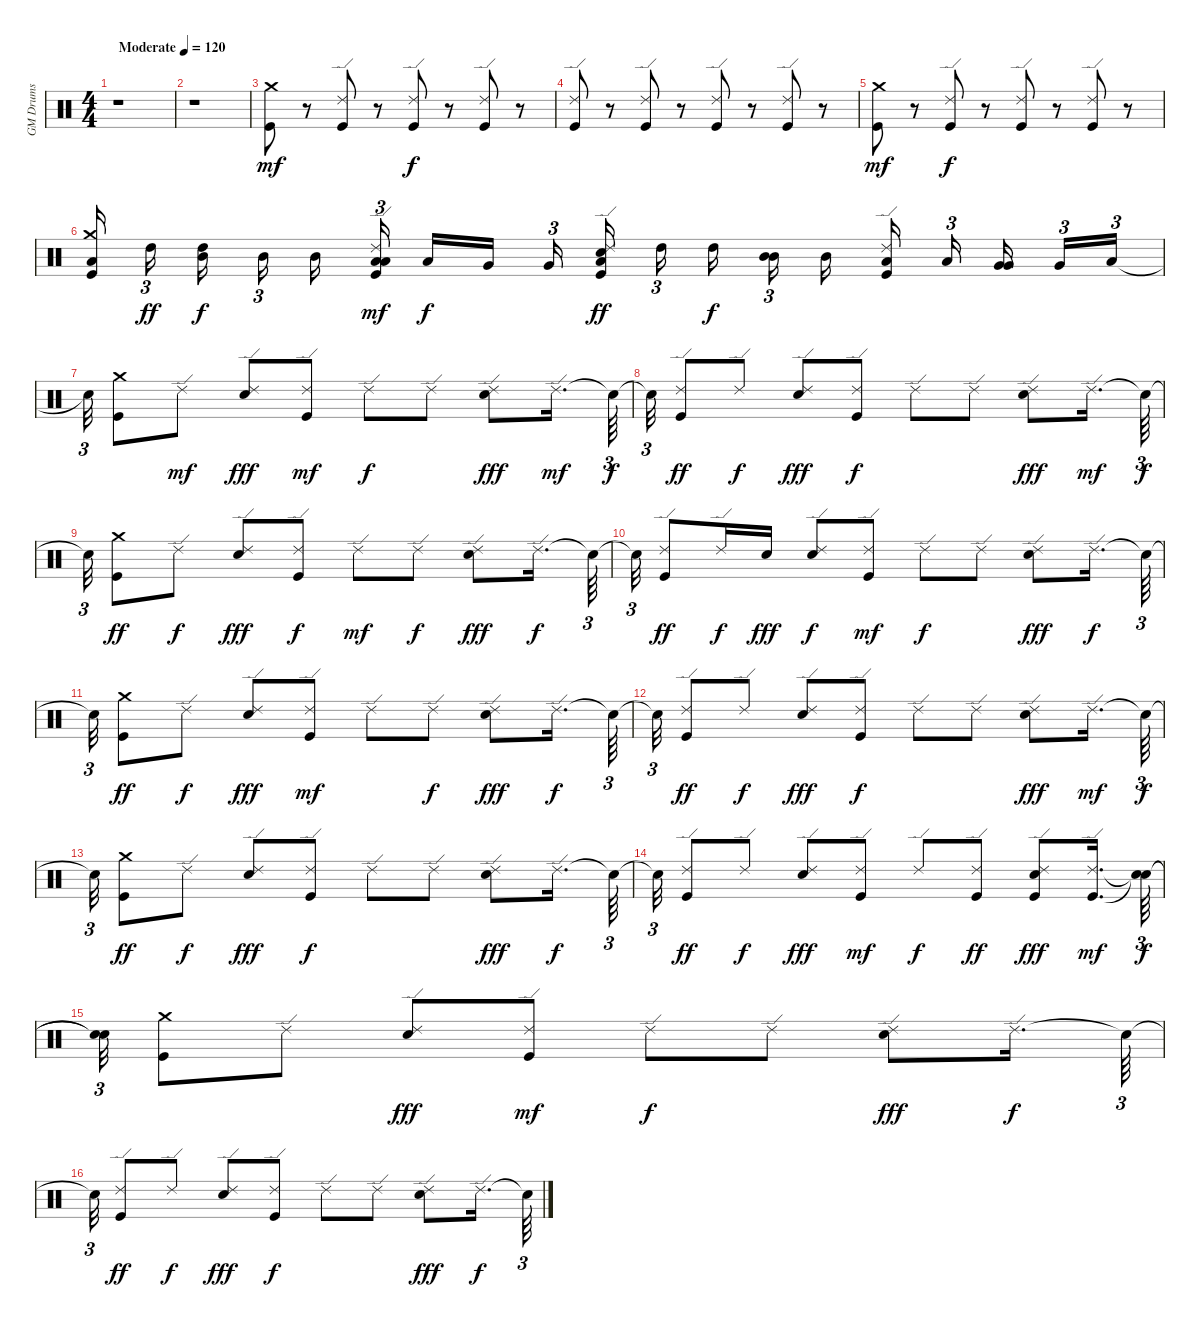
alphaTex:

\track ("GM Drums" "GM Drums") {instrument percussion}
\staff {score}
\articulation defaults
\ts (4 4)
\tempo (120 "Moderate")
\clef neutral
\ks c
r.1{dy mf} |
r.1 |
("Kick (hit)" "Crash medium (hit)").8 r.8 ("Kick (hit)" "Ride (edge) 2").8 r.8 ("Kick (hit)" "Ride (edge) 2").8{dy f} r.8 ("Kick (hit)" "Ride (edge) 2").8 r.8 |
("Kick (hit)" "Ride (edge) 2").8 r.8 ("Kick (hit)" "Ride (edge) 2").8 r.8 ("Kick (hit)" "Ride (edge) 2").8 r.8 ("Kick (hit)" "Ride (edge) 2").8 r.8 |
("Kick (hit)" "Crash medium (hit)").8{dy mf} r.8 ("Kick (hit)" "Ride (edge) 2").8{dy f} r.8 ("Kick (hit)" "Ride (edge) 2").8 r.8 ("Kick (hit)" "Ride (edge) 2").8 r.8 |
("Kick (hit)" "Low Floor Tom (hit)" "Crash medium (hit)").16 "High Tom (hit)".16{tu (3 2) dy ff} ("High Tom (hit)" "Mid Tom (hit)").16{dy f} "Mid Tom (hit)".16{tu (3 2)} "Mid Tom (hit)".16 ("Kick (hit)" "Low Tom (hit)" "Ride (edge) 2" "Low Tom (hit)").16{tu (3 2) dy mf} "Low Tom (hit)".16{dy f} "Very Low Tom (hit)".16 "Very Low Tom (hit)".16{tu (3 2)} ("Low Floor Tom (hit)" "Kick (hit)" "Snare (hit) 2" "Ride (edge) 2").16{dy ff} "High Tom (hit)".16{tu (3 2)} "High Tom (hit)".16{dy f} ("Mid Tom (hit)" "Mid Tom (hit)").16{tu (3 2)} "Mid Tom (hit)".16 ("Kick (hit)" "Low Tom (hit)" "Ride (edge) 2").16 "Low Tom (hit)".16{tu (3 2)} ("Very Low Tom (hit)" "Very Low Tom (hit)").16 "Very Low Tom (hit)".16{tu (3 2)} "Low Floor Tom (hit)".16{tu (3 2)} |
"Snare (hit)"{t}.32{tu (3 2)} ("Kick (hit)" "Crash medium (hit)").8 "Ride (edge) 2".8{dy mf} ("Snare (hit) 2" "Ride (edge) 2").8{dy fff} ("Kick (hit)" "Ride (edge) 2").8{dy mf} "Ride (edge) 2".8{dy f} "Ride (edge) 2".8 ("Snare (hit) 2" "Ride (edge) 2").8{dy fff} "Ride (edge) 2".16{d dy mf} "Snare (hit)"{t}.64{tu (3 2) dy f} |
"Snare (hit)"{t}.32{tu (3 2)} ("Kick (hit)" "Ride (edge) 2").8{dy ff} "Ride (edge) 2".8{dy f} ("Snare (hit) 2" "Ride (edge) 2").8{dy fff} ("Kick (hit)" "Ride (edge) 2").8{dy f} "Ride (edge) 2".8 "Ride (edge) 2".8 ("Snare (hit) 2" "Ride (edge) 2").8{dy fff} "Ride (edge) 2".16{d dy mf} "Snare (hit)"{t}.64{tu (3 2) dy f} |
"Snare (hit)"{t}.32{tu (3 2)} ("Kick (hit)" "Crash medium (hit)").8{dy ff} "Ride (edge) 2".8{dy f} ("Snare (hit) 2" "Ride (edge) 2").8{dy fff} ("Kick (hit)" "Ride (edge) 2").8{dy f} "Ride (edge) 2".8{dy mf} "Ride (edge) 2".8{dy f} ("Snare (hit) 2" "Ride (edge) 2").8{dy fff} "Ride (edge) 2".16{d dy f} "Snare (hit)"{t}.64{tu (3 2)} |
"Snare (hit)"{t}.32{tu (3 2)} ("Kick (hit)" "Ride (edge) 2").8{dy ff} "Ride (edge) 2".16{dy f} "Snare (hit) 2".16{dy fff} ("Snare (hit) 2" "Ride (edge) 2").8{dy f} ("Kick (hit)" "Ride (edge) 2").8{dy mf} "Ride (edge) 2".8{dy f} "Ride (edge) 2".8 ("Snare (hit) 2" "Ride (edge) 2").8{dy fff} "Ride (edge) 2".16{d dy f} "Snare (hit)"{t}.64{tu (3 2)} |
"Snare (hit)"{t}.32{tu (3 2)} ("Kick (hit)" "Crash medium (hit)").8{dy ff} "Ride (edge) 2".8{dy f} ("Snare (hit) 2" "Ride (edge) 2").8{dy fff} ("Kick (hit)" "Ride (edge) 2").8{dy mf} "Ride (edge) 2".8 "Ride (edge) 2".8{dy f} ("Snare (hit) 2" "Ride (edge) 2").8{dy fff} "Ride (edge) 2".16{d dy f} "Snare (hit)"{t}.64{tu (3 2)} |
"Snare (hit)"{t}.32{tu (3 2)} ("Kick (hit)" "Ride (edge) 2").8{dy ff} "Ride (edge) 2".8{dy f} ("Snare (hit) 2" "Ride (edge) 2").8{dy fff} ("Kick (hit)" "Ride (edge) 2").8{dy f} "Ride (edge) 2".8 "Ride (edge) 2".8 ("Snare (hit) 2" "Ride (edge) 2").8{dy fff} "Ride (edge) 2".16{d dy mf} "Snare (hit)"{t}.64{tu (3 2) dy f} |
"Snare (hit)"{t}.32{tu (3 2)} ("Kick (hit)" "Crash medium (hit)").8{dy ff} "Ride (edge) 2".8{dy f} ("Snare (hit) 2" "Ride (edge) 2").8{dy fff} ("Kick (hit)" "Ride (edge) 2").8{dy f} "Ride (edge) 2".8 "Ride (edge) 2".8 ("Snare (hit) 2" "Ride (edge) 2").8{dy fff} "Ride (edge) 2".16{d dy f} "Snare (hit)"{t}.64{tu (3 2)} |
"Snare (hit)"{t}.32{tu (3 2)} ("Kick (hit)" "Ride (edge) 2").8{dy ff} "Ride (edge) 2".8{dy f} ("Snare (hit) 2" "Ride (edge) 2").8{dy fff} ("Kick (hit)" "Ride (edge) 2").8{dy mf} "Ride (edge) 2".8{dy f} ("Kick (hit)" "Ride (edge) 2").8{dy ff} ("Kick (hit)" "Snare (hit) 2" "Ride (edge) 2").8{dy fff} ("Kick (hit)" "Ride (edge) 2").16{d dy mf} ("Snare (hit)"{t} "Snare (hit)"{t}).64{tu (3 2) dy f} |
("Snare (hit)"{t} "Snare (hit)"{t}).32{tu (3 2)} ("Kick (hit)" "Crash medium (hit)").8 "Ride (edge) 2".8 ("Snare (hit) 2" "Ride (edge) 2").8{dy fff} ("Kick (hit)" "Ride (edge) 2").8{dy mf} "Ride (edge) 2".8{dy f} "Ride (edge) 2".8 ("Snare (hit) 2" "Ride (edge) 2").8{dy fff} "Ride (edge) 2".16{d dy f} "Snare (hit)"{t}.64{tu (3 2)} |
"Snare (hit)"{t}.32{tu (3 2)} ("Kick (hit)" "Ride (edge) 2").8{dy ff} "Ride (edge) 2".8{dy f} ("Snare (hit) 2" "Ride (edge) 2").8{dy fff} ("Kick (hit)" "Ride (edge) 2").8{dy f} "Ride (edge) 2".8 "Ride (edge) 2".8 ("Snare (hit) 2" "Ride (edge) 2").8{dy fff} "Ride (edge) 2".16{d dy f} "Snare (hit)"{t}.64{tu (3 2)}
